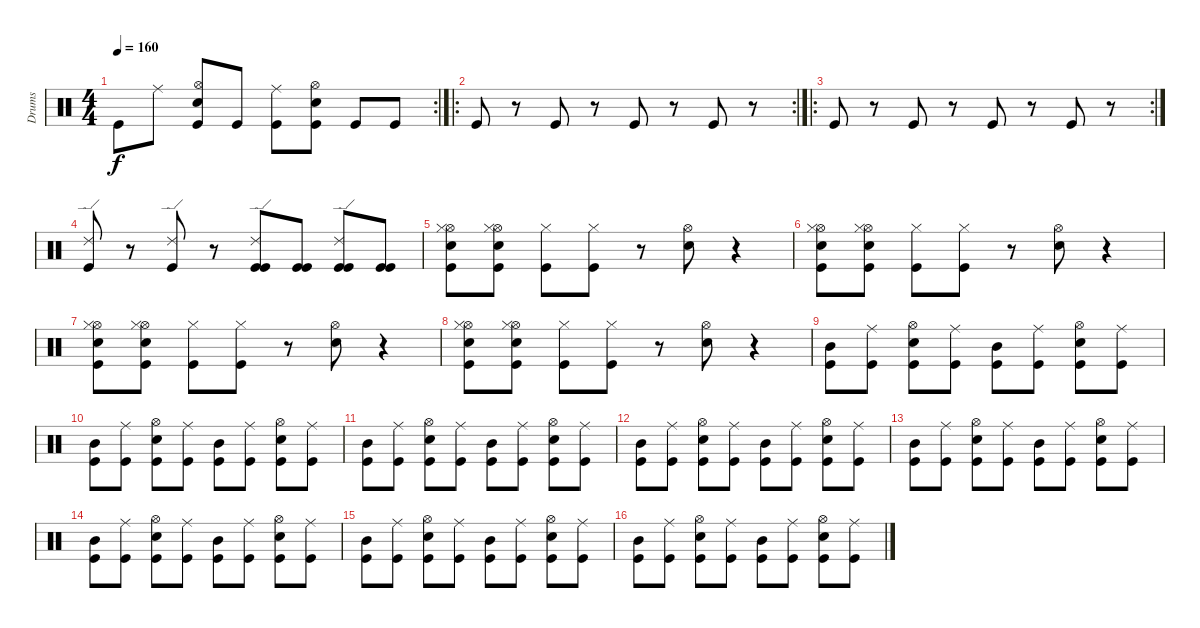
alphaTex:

\track ("Drums" "Drums") {instrument percussion}
\staff {score}
\articulation defaults
\rc 2
\ts (4 4)
\tempo 160
\clef neutral
\ks c "Kick (hit)".8{dy f} "Ride (middle)".8
("Hi-Hat (open)" "Snare (hit) 2" "Kick (hit)").8 "Kick (hit)".8 ("Kick (hit)" "Ride (middle)").8 ("Hi-Hat (open)" "Snare (hit) 2" "Kick (hit)").8 "Kick (hit)".8 "Kick (hit)".8 |
\ro
\rc 2 "Kick (hit)".8
r.8 "Kick (hit)".8 r.8 "Kick (hit)".8 r.8 "Kick (hit)".8 r.8 |
\ro
\rc 2 "Kick (hit)".8
r.8 "Kick (hit)".8 r.8 "Kick (hit)".8 r.8 "Kick (hit)".8 r.8 |
("Ride (edge) 2" "Kick (hit)").8 r.8 ("Ride (edge) 2" "Kick (hit)").8 r.8 ("Ride (edge) 2" "Kick (hit)" "Kick (hit)").8 ("Kick (hit)" "Kick (hit)").8 ("Ride (edge) 2" "Kick (hit)" "Kick (hit)").8 ("Kick (hit)" "Kick (hit)").8 |
("Hi-Hat (open)" "Snare (hit) 2" "Kick (hit)" "Hi-Hat (closed)").8 ("Hi-Hat (open)" "Snare (hit) 2" "Kick (hit)" "Hi-Hat (closed)").8 ("Kick (hit)" "Hi-Hat (closed)").8 ("Kick (hit)" "Hi-Hat (closed)").8 r.8 ("Hi-Hat (open)" "Snare (hit) 2").8 r.4 |
("Hi-Hat (open)" "Snare (hit) 2" "Kick (hit)" "Hi-Hat (closed)").8 ("Hi-Hat (open)" "Snare (hit) 2" "Kick (hit)" "Hi-Hat (closed)").8 ("Kick (hit)" "Hi-Hat (closed)").8 ("Kick (hit)" "Hi-Hat (closed)").8 r.8 ("Hi-Hat (open)" "Snare (hit) 2").8 r.4 |
("Hi-Hat (open)" "Snare (hit) 2" "Kick (hit)" "Hi-Hat (closed)").8 ("Hi-Hat (open)" "Snare (hit) 2" "Kick (hit)" "Hi-Hat (closed)").8 ("Kick (hit)" "Hi-Hat (closed)").8 ("Kick (hit)" "Hi-Hat (closed)").8 r.8 ("Hi-Hat (open)" "Snare (hit) 2").8 r.4 |
("Hi-Hat (open)" "Snare (hit) 2" "Kick (hit)" "Hi-Hat (closed)").8 ("Hi-Hat (open)" "Snare (hit) 2" "Kick (hit)" "Hi-Hat (closed)").8 ("Kick (hit)" "Hi-Hat (closed)").8 ("Kick (hit)" "Hi-Hat (closed)").8 r.8 ("Hi-Hat (open)" "Snare (hit) 2").8 r.4 |
("Mid Tom (hit)" "Kick (hit)").8 ("Kick (hit)" "Ride (middle)").8 ("Hi-Hat (open)" "Snare (hit) 2" "Kick (hit)").8 ("Kick (hit)" "Ride (middle)").8 ("Mid Tom (hit)" "Kick (hit)").8 ("Kick (hit)" "Ride (middle)").8 ("Hi-Hat (open)" "Snare (hit) 2" "Kick (hit)").8 ("Kick (hit)" "Ride (middle)").8 |
("Mid Tom (hit)" "Kick (hit)").8 ("Kick (hit)" "Ride (middle)").8 ("Hi-Hat (open)" "Snare (hit) 2" "Kick (hit)").8 ("Kick (hit)" "Ride (middle)").8 ("Mid Tom (hit)" "Kick (hit)").8 ("Kick (hit)" "Ride (middle)").8 ("Hi-Hat (open)" "Snare (hit) 2" "Kick (hit)").8 ("Kick (hit)" "Ride (middle)").8 |
("Mid Tom (hit)" "Kick (hit)").8 ("Kick (hit)" "Ride (middle)").8 ("Hi-Hat (open)" "Snare (hit) 2" "Kick (hit)").8 ("Kick (hit)" "Ride (middle)").8 ("Mid Tom (hit)" "Kick (hit)").8 ("Kick (hit)" "Ride (middle)").8 ("Hi-Hat (open)" "Snare (hit) 2" "Kick (hit)").8 ("Kick (hit)" "Ride (middle)").8 |
("Mid Tom (hit)" "Kick (hit)").8 ("Kick (hit)" "Ride (middle)").8 ("Hi-Hat (open)" "Snare (hit) 2" "Kick (hit)").8 ("Kick (hit)" "Ride (middle)").8 ("Mid Tom (hit)" "Kick (hit)").8 ("Kick (hit)" "Ride (middle)").8 ("Hi-Hat (open)" "Snare (hit) 2" "Kick (hit)").8 ("Kick (hit)" "Ride (middle)").8 |
("Mid Tom (hit)" "Kick (hit)").8 ("Kick (hit)" "Ride (middle)").8 ("Hi-Hat (open)" "Snare (hit) 2" "Kick (hit)").8 ("Kick (hit)" "Ride (middle)").8 ("Mid Tom (hit)" "Kick (hit)").8 ("Kick (hit)" "Ride (middle)").8 ("Hi-Hat (open)" "Snare (hit) 2" "Kick (hit)").8 ("Kick (hit)" "Ride (middle)").8 |
("Mid Tom (hit)" "Kick (hit)").8 ("Kick (hit)" "Ride (middle)").8 ("Hi-Hat (open)" "Snare (hit) 2" "Kick (hit)").8 ("Kick (hit)" "Ride (middle)").8 ("Mid Tom (hit)" "Kick (hit)").8 ("Kick (hit)" "Ride (middle)").8 ("Hi-Hat (open)" "Snare (hit) 2" "Kick (hit)").8 ("Kick (hit)" "Ride (middle)").8 |
("Mid Tom (hit)" "Kick (hit)").8 ("Kick (hit)" "Ride (middle)").8 ("Hi-Hat (open)" "Snare (hit) 2" "Kick (hit)").8 ("Kick (hit)" "Ride (middle)").8 ("Mid Tom (hit)" "Kick (hit)").8 ("Kick (hit)" "Ride (middle)").8 ("Hi-Hat (open)" "Snare (hit) 2" "Kick (hit)").8 ("Kick (hit)" "Ride (middle)").8 |
("Mid Tom (hit)" "Kick (hit)").8 ("Kick (hit)" "Ride (middle)").8 ("Hi-Hat (open)" "Snare (hit) 2" "Kick (hit)").8 ("Kick (hit)" "Ride (middle)").8 ("Mid Tom (hit)" "Kick (hit)").8 ("Kick (hit)" "Ride (middle)").8 ("Hi-Hat (open)" "Snare (hit) 2" "Kick (hit)").8 ("Kick (hit)" "Ride (middle)").8
